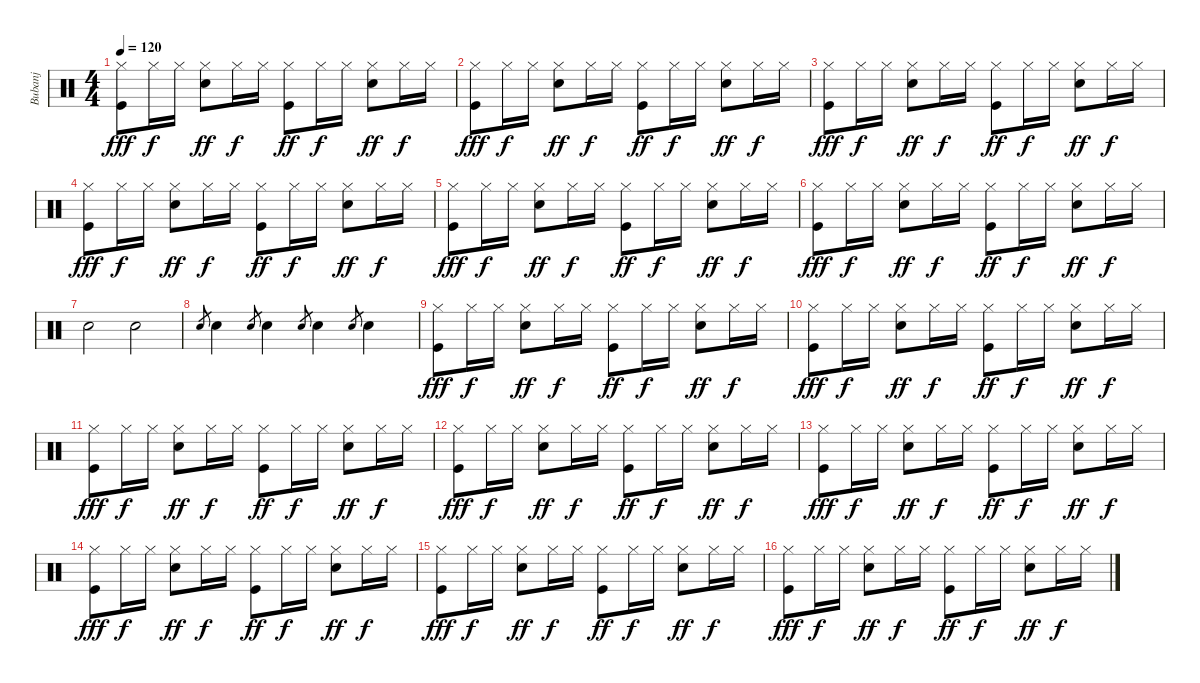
\track ("Bubanj" "Bubanj") {instrument percussion}
\staff {score}
\articulation defaults
\ts (4 4)
\tempo 120
\clef neutral
\ks c
("Kick (hit)" "Hi-Hat (closed)").8{dy fff} "Hi-Hat (closed)".16{dy f} "Hi-Hat (closed)".16 ("Electric Snare (hit)" "Hi-Hat (closed)").8{dy ff} "Hi-Hat (closed)".16{dy f} "Hi-Hat (closed)".16 ("Kick (hit)" "Hi-Hat (closed)").8{dy ff} "Hi-Hat (closed)".16{dy f} "Hi-Hat (closed)".16 ("Electric Snare (hit)" "Hi-Hat (closed)").8{dy ff} "Hi-Hat (closed)".16{dy f} "Hi-Hat (closed)".16 |
("Kick (hit)" "Hi-Hat (closed)").8{dy fff} "Hi-Hat (closed)".16{dy f} "Hi-Hat (closed)".16 ("Electric Snare (hit)" "Hi-Hat (closed)").8{dy ff} "Hi-Hat (closed)".16{dy f} "Hi-Hat (closed)".16 ("Kick (hit)" "Hi-Hat (closed)").8{dy ff} "Hi-Hat (closed)".16{dy f} "Hi-Hat (closed)".16 ("Electric Snare (hit)" "Hi-Hat (closed)").8{dy ff} "Hi-Hat (closed)".16{dy f} "Hi-Hat (closed)".16 |
("Kick (hit)" "Hi-Hat (closed)").8{dy fff} "Hi-Hat (closed)".16{dy f} "Hi-Hat (closed)".16 ("Electric Snare (hit)" "Hi-Hat (closed)").8{dy ff} "Hi-Hat (closed)".16{dy f} "Hi-Hat (closed)".16 ("Kick (hit)" "Hi-Hat (closed)").8{dy ff} "Hi-Hat (closed)".16{dy f} "Hi-Hat (closed)".16 ("Electric Snare (hit)" "Hi-Hat (closed)").8{dy ff} "Hi-Hat (closed)".16{dy f} "Hi-Hat (closed)".16 |
("Kick (hit)" "Hi-Hat (closed)").8{dy fff} "Hi-Hat (closed)".16{dy f} "Hi-Hat (closed)".16 ("Electric Snare (hit)" "Hi-Hat (closed)").8{dy ff} "Hi-Hat (closed)".16{dy f} "Hi-Hat (closed)".16 ("Kick (hit)" "Hi-Hat (closed)").8{dy ff} "Hi-Hat (closed)".16{dy f} "Hi-Hat (closed)".16 ("Electric Snare (hit)" "Hi-Hat (closed)").8{dy ff} "Hi-Hat (closed)".16{dy f} "Hi-Hat (closed)".16 |
("Kick (hit)" "Hi-Hat (closed)").8{dy fff} "Hi-Hat (closed)".16{dy f} "Hi-Hat (closed)".16 ("Electric Snare (hit)" "Hi-Hat (closed)").8{dy ff} "Hi-Hat (closed)".16{dy f} "Hi-Hat (closed)".16 ("Kick (hit)" "Hi-Hat (closed)").8{dy ff} "Hi-Hat (closed)".16{dy f} "Hi-Hat (closed)".16 ("Electric Snare (hit)" "Hi-Hat (closed)").8{dy ff} "Hi-Hat (closed)".16{dy f} "Hi-Hat (closed)".16 |
("Kick (hit)" "Hi-Hat (closed)").8{dy fff} "Hi-Hat (closed)".16{dy f} "Hi-Hat (closed)".16 ("Electric Snare (hit)" "Hi-Hat (closed)").8{dy ff} "Hi-Hat (closed)".16{dy f} "Hi-Hat (closed)".16 ("Kick (hit)" "Hi-Hat (closed)").8{dy ff} "Hi-Hat (closed)".16{dy f} "Hi-Hat (closed)".16 ("Electric Snare (hit)" "Hi-Hat (closed)").8{dy ff} "Hi-Hat (closed)".16{dy f} "Hi-Hat (closed)".16 |
"Electric Snare (hit)".2 "Electric Snare (hit)".2 |
"Electric Snare (hit)".8{gr} "Electric Snare (hit)".4 "Electric Snare (hit)".8{gr} "Electric Snare (hit)".4 "Electric Snare (hit)".8{gr} "Electric Snare (hit)".4 "Electric Snare (hit)".8{gr} "Electric Snare (hit)".4 |
("Kick (hit)" "Hi-Hat (closed)").8{dy fff} "Hi-Hat (closed)".16{dy f} "Hi-Hat (closed)".16 ("Electric Snare (hit)" "Hi-Hat (closed)").8{dy ff} "Hi-Hat (closed)".16{dy f} "Hi-Hat (closed)".16 ("Kick (hit)" "Hi-Hat (closed)").8{dy ff} "Hi-Hat (closed)".16{dy f} "Hi-Hat (closed)".16 ("Electric Snare (hit)" "Hi-Hat (closed)").8{dy ff} "Hi-Hat (closed)".16{dy f} "Hi-Hat (closed)".16 |
("Kick (hit)" "Hi-Hat (closed)").8{dy fff} "Hi-Hat (closed)".16{dy f} "Hi-Hat (closed)".16 ("Electric Snare (hit)" "Hi-Hat (closed)").8{dy ff} "Hi-Hat (closed)".16{dy f} "Hi-Hat (closed)".16 ("Kick (hit)" "Hi-Hat (closed)").8{dy ff} "Hi-Hat (closed)".16{dy f} "Hi-Hat (closed)".16 ("Electric Snare (hit)" "Hi-Hat (closed)").8{dy ff} "Hi-Hat (closed)".16{dy f} "Hi-Hat (closed)".16 |
("Kick (hit)" "Hi-Hat (closed)").8{dy fff} "Hi-Hat (closed)".16{dy f} "Hi-Hat (closed)".16 ("Electric Snare (hit)" "Hi-Hat (closed)").8{dy ff} "Hi-Hat (closed)".16{dy f} "Hi-Hat (closed)".16 ("Kick (hit)" "Hi-Hat (closed)").8{dy ff} "Hi-Hat (closed)".16{dy f} "Hi-Hat (closed)".16 ("Electric Snare (hit)" "Hi-Hat (closed)").8{dy ff} "Hi-Hat (closed)".16{dy f} "Hi-Hat (closed)".16 |
("Kick (hit)" "Hi-Hat (closed)").8{dy fff} "Hi-Hat (closed)".16{dy f} "Hi-Hat (closed)".16 ("Electric Snare (hit)" "Hi-Hat (closed)").8{dy ff} "Hi-Hat (closed)".16{dy f} "Hi-Hat (closed)".16 ("Kick (hit)" "Hi-Hat (closed)").8{dy ff} "Hi-Hat (closed)".16{dy f} "Hi-Hat (closed)".16 ("Electric Snare (hit)" "Hi-Hat (closed)").8{dy ff} "Hi-Hat (closed)".16{dy f} "Hi-Hat (closed)".16 |
("Kick (hit)" "Hi-Hat (closed)").8{dy fff} "Hi-Hat (closed)".16{dy f} "Hi-Hat (closed)".16 ("Electric Snare (hit)" "Hi-Hat (closed)").8{dy ff} "Hi-Hat (closed)".16{dy f} "Hi-Hat (closed)".16 ("Kick (hit)" "Hi-Hat (closed)").8{dy ff} "Hi-Hat (closed)".16{dy f} "Hi-Hat (closed)".16 ("Electric Snare (hit)" "Hi-Hat (closed)").8{dy ff} "Hi-Hat (closed)".16{dy f} "Hi-Hat (closed)".16 |
("Kick (hit)" "Hi-Hat (closed)").8{dy fff} "Hi-Hat (closed)".16{dy f} "Hi-Hat (closed)".16 ("Electric Snare (hit)" "Hi-Hat (closed)").8{dy ff} "Hi-Hat (closed)".16{dy f} "Hi-Hat (closed)".16 ("Kick (hit)" "Hi-Hat (closed)").8{dy ff} "Hi-Hat (closed)".16{dy f} "Hi-Hat (closed)".16 ("Electric Snare (hit)" "Hi-Hat (closed)").8{dy ff} "Hi-Hat (closed)".16{dy f} "Hi-Hat (closed)".16 |
("Kick (hit)" "Hi-Hat (closed)").8{dy fff} "Hi-Hat (closed)".16{dy f} "Hi-Hat (closed)".16 ("Electric Snare (hit)" "Hi-Hat (closed)").8{dy ff} "Hi-Hat (closed)".16{dy f} "Hi-Hat (closed)".16 ("Kick (hit)" "Hi-Hat (closed)").8{dy ff} "Hi-Hat (closed)".16{dy f} "Hi-Hat (closed)".16 ("Electric Snare (hit)" "Hi-Hat (closed)").8{dy ff} "Hi-Hat (closed)".16{dy f} "Hi-Hat (closed)".16 |
("Kick (hit)" "Hi-Hat (closed)").8{dy fff} "Hi-Hat (closed)".16{dy f} "Hi-Hat (closed)".16 ("Electric Snare (hit)" "Hi-Hat (closed)").8{dy ff} "Hi-Hat (closed)".16{dy f} "Hi-Hat (closed)".16 ("Kick (hit)" "Hi-Hat (closed)").8{dy ff} "Hi-Hat (closed)".16{dy f} "Hi-Hat (closed)".16 ("Electric Snare (hit)" "Hi-Hat (closed)").8{dy ff} "Hi-Hat (closed)".16{dy f} "Hi-Hat (closed)".16
